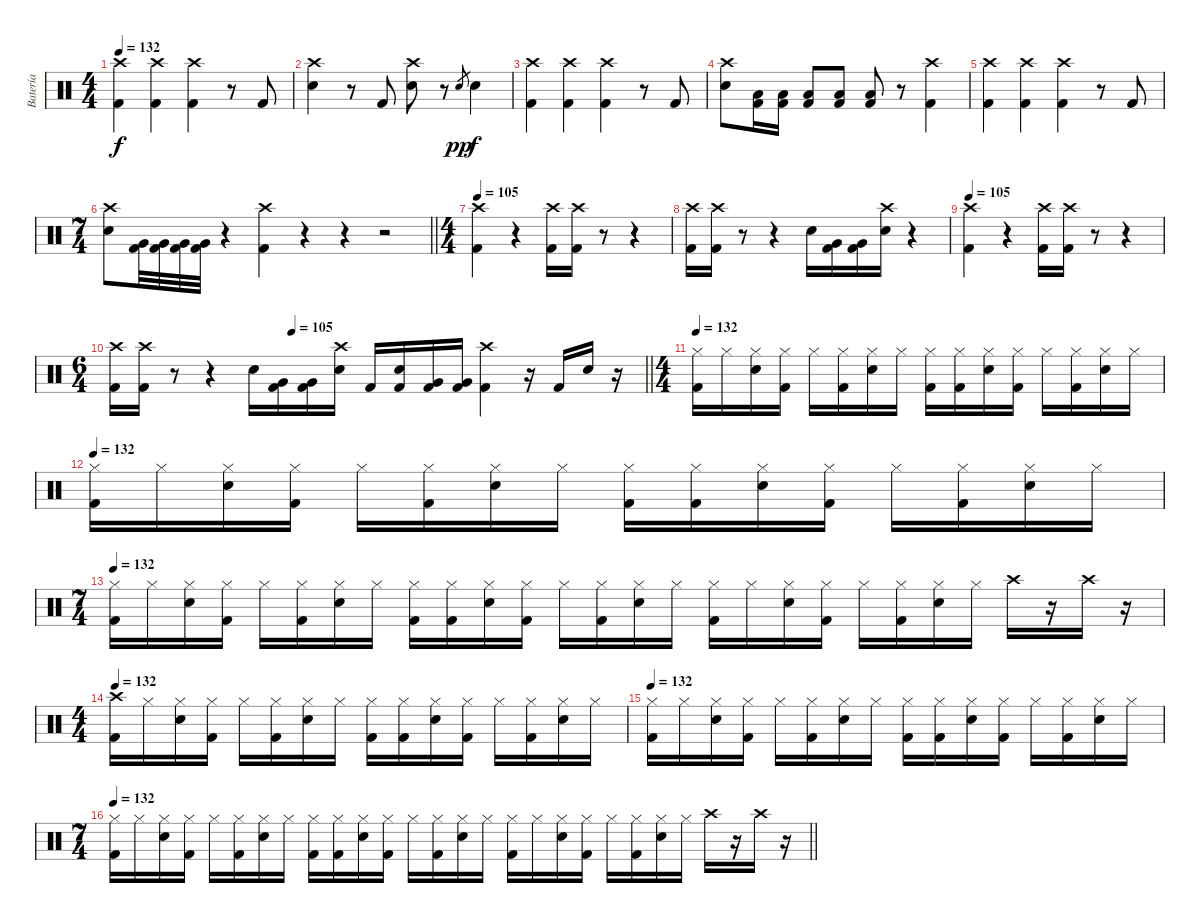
\track ("Batería" "Batería") {instrument percussion}
\staff {score}
\articulation defaults
\ts (4 4)
\tempo 132
\clef neutral
\ks c
("Crash high (hit)" "Kick (hit) 2").4{dy f} ("Crash high (hit)" "Kick (hit) 2").4 ("Crash high (hit)" "Kick (hit) 2").4 r.8 "Kick (hit) 2".8 |
("Crash high (hit)" "Snare (hit) 2").4 r.8 "Kick (hit) 2".8 ("Crash high (hit)" "Snare (hit) 2").8 r.8 "Snare (hit) 2".8{gr dy pp} "Snare (hit) 2".4{dy f} |
("Crash high (hit)" "Kick (hit) 2").4 ("Crash high (hit)" "Kick (hit) 2").4 ("Crash high (hit)" "Kick (hit) 2").4 r.8 "Kick (hit) 2".8 |
("Crash high (hit)" "Snare (hit) 2").8 ("Low Tom (hit)" "Kick (hit) 2").16 ("Low Tom (hit)" "Kick (hit) 2").16 ("Low Tom (hit)" "Kick (hit) 2").8 ("Low Tom (hit)" "Kick (hit) 2").8 ("Low Tom (hit)" "Kick (hit) 2").8 r.8 ("Crash high (hit)" "Kick (hit) 2").4 |
("Crash high (hit)" "Kick (hit) 2").4 ("Crash high (hit)" "Kick (hit) 2").4 ("Crash high (hit)" "Kick (hit) 2").4 r.8 "Kick (hit) 2".8 |
\ts (7 4)
\barLineRight lightlight
("Crash high (hit)" "Snare (hit) 2").8 ("Very Low Tom (hit)" "Kick (hit) 2").32 ("Very Low Tom (hit)" "Kick (hit) 2").32 ("Very Low Tom (hit)" "Kick (hit) 2").32 ("Very Low Tom (hit)" "Kick (hit) 2").32 r.4 ("Crash high (hit)" "Kick (hit) 2").4 r.4 r.4 r.2 |
\ts (4 4)
\tempo 105
("Crash high (hit)" "Kick (hit) 2").4 r.4 ("Crash high (hit)" "Kick (hit) 2").16 ("Crash high (hit)" "Kick (hit) 2").16 r.8 r.4 |
("Crash high (hit)" "Kick (hit) 2").16 ("Crash high (hit)" "Kick (hit) 2").16 r.8 r.4 "Snare (hit) 2".16 ("Very Low Tom (hit)" "Kick (hit) 2").16 ("Very Low Tom (hit)" "Kick (hit) 2").16 ("Crash high (hit)" "Snare (hit) 2").16 r.4 |
\tempo 105
("Crash high (hit)" "Kick (hit) 2").4 r.4 ("Crash high (hit)" "Kick (hit) 2").16 ("Crash high (hit)" "Kick (hit) 2").16 r.8 r.4 |
\ts (6 4)
\tempo (105 0.3333333333333333)
\barLineRight lightlight
("Crash high (hit)" "Kick (hit) 2").16 ("Crash high (hit)" "Kick (hit) 2").16 r.8 r.4 "Snare (hit) 2".16 ("Very Low Tom (hit)" "Kick (hit) 2").16 ("Very Low Tom (hit)" "Kick (hit) 2").16 ("Crash high (hit)" "Snare (hit) 2").16 "Kick (hit) 2".16 ("Snare (hit) 2" "Kick (hit) 2").16 ("Very Low Tom (hit)" "Kick (hit) 2").16 ("Very Low Tom (hit)" "Kick (hit) 2").16 ("Crash high (hit)" "Kick (hit) 2").4 r.16 "Kick (hit) 2".16 "Snare (hit) 2".16 r.16 |
\ts (4 4)
\tempo 132
("Hi-Hat (closed)" "Kick (hit) 2").16 "Hi-Hat (closed)".16 ("Hi-Hat (closed)" "Snare (hit) 2").16 ("Hi-Hat (closed)" "Kick (hit) 2").16 "Hi-Hat (closed)".16 ("Hi-Hat (closed)" "Kick (hit) 2").16 ("Hi-Hat (closed)" "Snare (hit) 2").16 "Hi-Hat (closed)".16 ("Hi-Hat (closed)" "Kick (hit) 2").16 ("Hi-Hat (closed)" "Kick (hit) 2").16 ("Hi-Hat (closed)" "Snare (hit) 2").16 ("Hi-Hat (closed)" "Kick (hit) 2").16 "Hi-Hat (closed)".16 ("Hi-Hat (closed)" "Kick (hit) 2").16 ("Hi-Hat (closed)" "Snare (hit) 2").16 "Hi-Hat (closed)".16 |
\tempo 132
("Hi-Hat (closed)" "Kick (hit) 2").16 "Hi-Hat (closed)".16 ("Hi-Hat (closed)" "Snare (hit) 2").16 ("Hi-Hat (closed)" "Kick (hit) 2").16 "Hi-Hat (closed)".16 ("Hi-Hat (closed)" "Kick (hit) 2").16 ("Hi-Hat (closed)" "Snare (hit) 2").16 "Hi-Hat (closed)".16 ("Hi-Hat (closed)" "Kick (hit) 2").16 ("Hi-Hat (closed)" "Kick (hit) 2").16 ("Hi-Hat (closed)" "Snare (hit) 2").16 ("Hi-Hat (closed)" "Kick (hit) 2").16 "Hi-Hat (closed)".16 ("Hi-Hat (closed)" "Kick (hit) 2").16 ("Hi-Hat (closed)" "Snare (hit) 2").16 "Hi-Hat (closed)".16 |
\ts (7 4)
\tempo 132
("Hi-Hat (closed)" "Kick (hit) 2").16 "Hi-Hat (closed)".16 ("Hi-Hat (closed)" "Snare (hit) 2").16 ("Hi-Hat (closed)" "Kick (hit) 2").16 "Hi-Hat (closed)".16 ("Hi-Hat (closed)" "Kick (hit) 2").16 ("Hi-Hat (closed)" "Snare (hit) 2").16 "Hi-Hat (closed)".16 ("Hi-Hat (closed)" "Kick (hit) 2").16 ("Hi-Hat (closed)" "Kick (hit) 2").16 ("Hi-Hat (closed)" "Snare (hit) 2").16 ("Hi-Hat (closed)" "Kick (hit) 2").16 "Hi-Hat (closed)".16 ("Hi-Hat (closed)" "Kick (hit) 2").16 ("Hi-Hat (closed)" "Snare (hit) 2").16 "Hi-Hat (closed)".16 ("Hi-Hat (closed)" "Kick (hit) 2").16 "Hi-Hat (closed)".16 ("Hi-Hat (closed)" "Snare (hit) 2").16 ("Hi-Hat (closed)" "Kick (hit) 2").16 "Hi-Hat (closed)".16 ("Hi-Hat (closed)" "Kick (hit) 2").16 ("Hi-Hat (closed)" "Snare (hit) 2").16 "Hi-Hat (closed)".16 "Crash high (hit)".16 r.16 "Crash high (hit)".16 r.16 |
\ts (4 4)
\tempo 132
("Crash high (hit)" "Kick (hit) 2").16 "Hi-Hat (closed)".16 ("Hi-Hat (closed)" "Snare (hit) 2").16 ("Hi-Hat (closed)" "Kick (hit) 2").16 "Hi-Hat (closed)".16 ("Hi-Hat (closed)" "Kick (hit) 2").16 ("Hi-Hat (closed)" "Snare (hit) 2").16 "Hi-Hat (closed)".16 ("Hi-Hat (closed)" "Kick (hit) 2").16 ("Hi-Hat (closed)" "Kick (hit) 2").16 ("Hi-Hat (closed)" "Snare (hit) 2").16 ("Hi-Hat (closed)" "Kick (hit) 2").16 "Hi-Hat (closed)".16 ("Hi-Hat (closed)" "Kick (hit) 2").16 ("Hi-Hat (closed)" "Snare (hit) 2").16 "Hi-Hat (closed)".16 |
\tempo 132
("Hi-Hat (closed)" "Kick (hit) 2").16 "Hi-Hat (closed)".16 ("Hi-Hat (closed)" "Snare (hit) 2").16 ("Hi-Hat (closed)" "Kick (hit) 2").16 "Hi-Hat (closed)".16 ("Hi-Hat (closed)" "Kick (hit) 2").16 ("Hi-Hat (closed)" "Snare (hit) 2").16 "Hi-Hat (closed)".16 ("Hi-Hat (closed)" "Kick (hit) 2").16 ("Hi-Hat (closed)" "Kick (hit) 2").16 ("Hi-Hat (closed)" "Snare (hit) 2").16 ("Hi-Hat (closed)" "Kick (hit) 2").16 "Hi-Hat (closed)".16 ("Hi-Hat (closed)" "Kick (hit) 2").16 ("Hi-Hat (closed)" "Snare (hit) 2").16 "Hi-Hat (closed)".16 |
\ts (7 4)
\tempo 132
\barLineRight lightlight
("Hi-Hat (closed)" "Kick (hit) 2").16 "Hi-Hat (closed)".16 ("Hi-Hat (closed)" "Snare (hit) 2").16 ("Hi-Hat (closed)" "Kick (hit) 2").16 "Hi-Hat (closed)".16 ("Hi-Hat (closed)" "Kick (hit) 2").16 ("Hi-Hat (closed)" "Snare (hit) 2").16 "Hi-Hat (closed)".16 ("Hi-Hat (closed)" "Kick (hit) 2").16 ("Hi-Hat (closed)" "Kick (hit) 2").16 ("Hi-Hat (closed)" "Snare (hit) 2").16 ("Hi-Hat (closed)" "Kick (hit) 2").16 "Hi-Hat (closed)".16 ("Hi-Hat (closed)" "Kick (hit) 2").16 ("Hi-Hat (closed)" "Snare (hit) 2").16 "Hi-Hat (closed)".16 ("Hi-Hat (closed)" "Kick (hit) 2").16 "Hi-Hat (closed)".16 ("Hi-Hat (closed)" "Snare (hit) 2").16 ("Hi-Hat (closed)" "Kick (hit) 2").16 "Hi-Hat (closed)".16 ("Hi-Hat (closed)" "Kick (hit) 2").16 ("Hi-Hat (closed)" "Snare (hit) 2").16 "Hi-Hat (closed)".16 "Crash high (hit)".16 r.16 "Crash high (hit)".16 r.16
